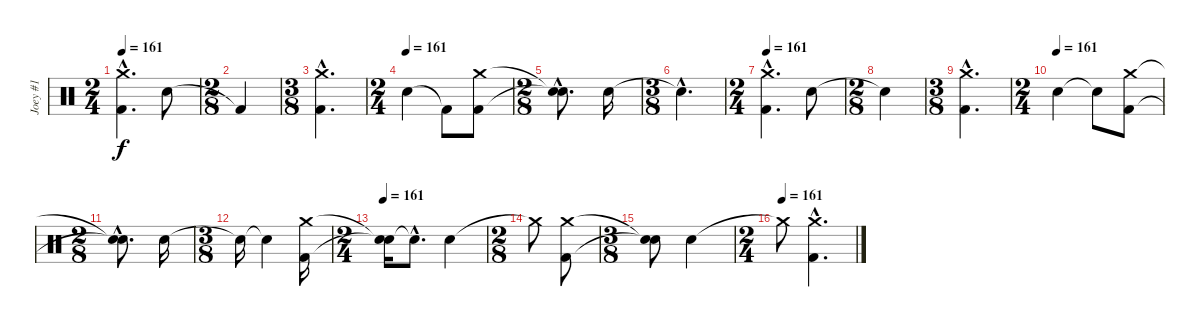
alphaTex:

\track ("Joey #1" "Joey #1") {instrument percussion}
\staff {score}
\articulation defaults
\ts (2 4)
\tempo 161
\clef neutral
\ks c
("Crash medium (hit)"{hac} "Kick (hit) 2"{hac}).4{d dy f} "Electric Snare (hit)".8 |
\ts (2 8)
"Kick (hit) 2"{t}.4 |
\ts (3 8)
("Crash medium (hit)"{hac} "Kick (hit) 2"{hac}).4{d} |
\ts (2 4)
\tempo (161)
"Electric Snare (hit)".4 "Kick (hit) 2"{t}.8 ("Crash medium (hit)" "Kick (hit) 2").8 |
\ts (2 8)
("Snare (hit)"{hac t} "Electric Snare (hit)"{hac t}).8{d} "Electric Snare (hit)".16 |
\ts (3 8)
"Snare (hit)"{hac t}.4{d} |
\ts (2 4)
\tempo 161
("Crash medium (hit)"{hac} "Kick (hit) 2"{hac}).4{d} "Electric Snare (hit)".8 |
\ts (2 8)
"Snare (hit)"{t}.4 |
\ts (3 8)
("Crash medium (hit)"{hac} "Kick (hit) 2"{hac}).4{d} |
\ts (2 4)
\tempo (161)
"Electric Snare (hit)".4 "Snare (hit)"{t}.8 ("Crash medium (hit)" "Kick (hit) 2").8 |
\ts (2 8)
("Snare (hit)"{hac t} "Snare (hit)"{hac t}).8{d} "Electric Snare (hit)".16 |
\ts (3 8)
"Snare (hit)"{t}.16 "Snare (hit)"{t}.4 ("Crash medium (hit)" "Kick (hit) 2").16 |
\ts (2 4)
\tempo 161
("Snare (hit)"{t} "Snare (hit)"{t}).16 "Snare (hit)"{hac t}.8{d} "Electric Snare (hit)".4 |
\ts (2 8)
"Crash medium (hit)"{t}.8 ("Crash medium (hit)" "Kick (hit) 2").8 |
\ts (3 8)
("Snare (hit)"{t} "Snare (hit)"{t}).8 "Electric Snare (hit)".4 |
\ts (2 4)
\tempo (161)
"Crash medium (hit)"{t}.8 ("Crash medium (hit)"{hac} "Kick (hit) 2"{hac}).4{d}
